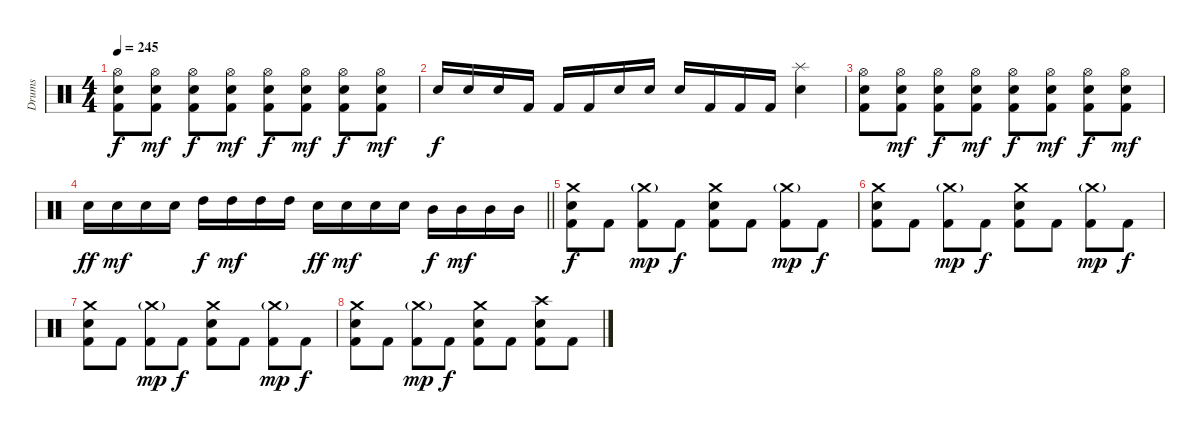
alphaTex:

\track ("Drums" "Drums") {instrument percussion}
\staff {score}
\articulation defaults
\ts (4 4)
\tempo 245
\clef neutral
\ks c
("Hi-Hat (open)" "Electric Snare (hit)" "Kick (hit) 2").8{dy f} ("Hi-Hat (open)" "Electric Snare (hit)" "Kick (hit) 2").8{dy mf} ("Hi-Hat (open)" "Electric Snare (hit)" "Kick (hit) 2").8{dy f} ("Hi-Hat (open)" "Electric Snare (hit)" "Kick (hit) 2").8{dy mf} ("Hi-Hat (open)" "Electric Snare (hit)" "Kick (hit) 2").8{dy f} ("Hi-Hat (open)" "Electric Snare (hit)" "Kick (hit) 2").8{dy mf} ("Hi-Hat (open)" "Electric Snare (hit)" "Kick (hit) 2").8{dy f} ("Hi-Hat (open)" "Electric Snare (hit)" "Kick (hit) 2").8{dy mf} |
"Electric Snare (hit)".16{dy f} "Electric Snare (hit)".16 "Electric Snare (hit)".16 "Kick (hit) 2".16 "Kick (hit) 2".16 "Kick (hit) 2".16 "Electric Snare (hit)".16 "Electric Snare (hit)".16 "Electric Snare (hit)".16 "Kick (hit) 2".16 "Kick (hit) 2".16 "Kick (hit) 2".16 ("Splash (hit)" "Electric Snare (hit)").4 |
("Hi-Hat (open)" "Electric Snare (hit)" "Kick (hit) 2").8 ("Hi-Hat (open)" "Electric Snare (hit)" "Kick (hit) 2").8{dy mf} ("Hi-Hat (open)" "Electric Snare (hit)" "Kick (hit) 2").8{dy f} ("Hi-Hat (open)" "Electric Snare (hit)" "Kick (hit) 2").8{dy mf} ("Hi-Hat (open)" "Electric Snare (hit)" "Kick (hit) 2").8{dy f} ("Hi-Hat (open)" "Electric Snare (hit)" "Kick (hit) 2").8{dy mf} ("Hi-Hat (open)" "Electric Snare (hit)" "Kick (hit) 2").8{dy f} ("Hi-Hat (open)" "Electric Snare (hit)" "Kick (hit) 2").8{dy mf} |
\barLineRight lightlight "Electric Snare (hit)".16{dy ff} "Electric Snare (hit)".16{dy mf} "Electric Snare (hit)".16 "Electric Snare (hit)".16 "High Tom (hit)".16{dy f} "High Tom (hit)".16{dy mf} "High Tom (hit)".16 "High Tom (hit)".16 "Electric Snare (hit)".16{dy ff} "Electric Snare (hit)".16{dy mf} "Electric Snare (hit)".16 "Electric Snare (hit)".16 "Mid Tom (hit)".16{dy f} "Mid Tom (hit)".16{dy mf} "Mid Tom (hit)".16 "Mid Tom (hit)".16
|
("Crash medium (hit)" "Electric Snare (hit)" "Kick (hit) 2").8{dy f} "Kick (hit) 2".8 ("Crash medium (hit)"{g} "Kick (hit) 2").8{dy mp} "Kick (hit) 2".8{dy f} ("Crash medium (hit)" "Electric Snare (hit)" "Kick (hit) 2").8 "Kick (hit) 2".8 ("Crash medium (hit)"{g} "Kick (hit) 2").8{dy mp} "Kick (hit) 2".8{dy f} |
("Crash medium (hit)" "Electric Snare (hit)" "Kick (hit) 2").8 "Kick (hit) 2".8 ("Crash medium (hit)"{g} "Kick (hit) 2").8{dy mp} "Kick (hit) 2".8{dy f} ("Crash medium (hit)" "Electric Snare (hit)" "Kick (hit) 2").8 "Kick (hit) 2".8 ("Crash medium (hit)"{g} "Kick (hit) 2").8{dy mp} "Kick (hit) 2".8{dy f} |
("Crash medium (hit)" "Electric Snare (hit)" "Kick (hit) 2").8 "Kick (hit) 2".8 ("Crash medium (hit)"{g} "Kick (hit) 2").8{dy mp} "Kick (hit) 2".8{dy f} ("Crash medium (hit)" "Electric Snare (hit)" "Kick (hit) 2").8 "Kick (hit) 2".8 ("Crash medium (hit)"{g} "Kick (hit) 2").8{dy mp} "Kick (hit) 2".8{dy f} |
("Crash medium (hit)" "Electric Snare (hit)" "Kick (hit) 2").8 "Kick (hit) 2".8 ("Crash medium (hit)"{g} "Kick (hit) 2").8{dy mp} "Kick (hit) 2".8{dy f} ("Crash medium (hit)" "Electric Snare (hit)" "Kick (hit) 2").8 "Kick (hit) 2".8 ("Crash high (hit)" "Electric Snare (hit)" "Kick (hit) 2").8 "Kick (hit) 2".8
